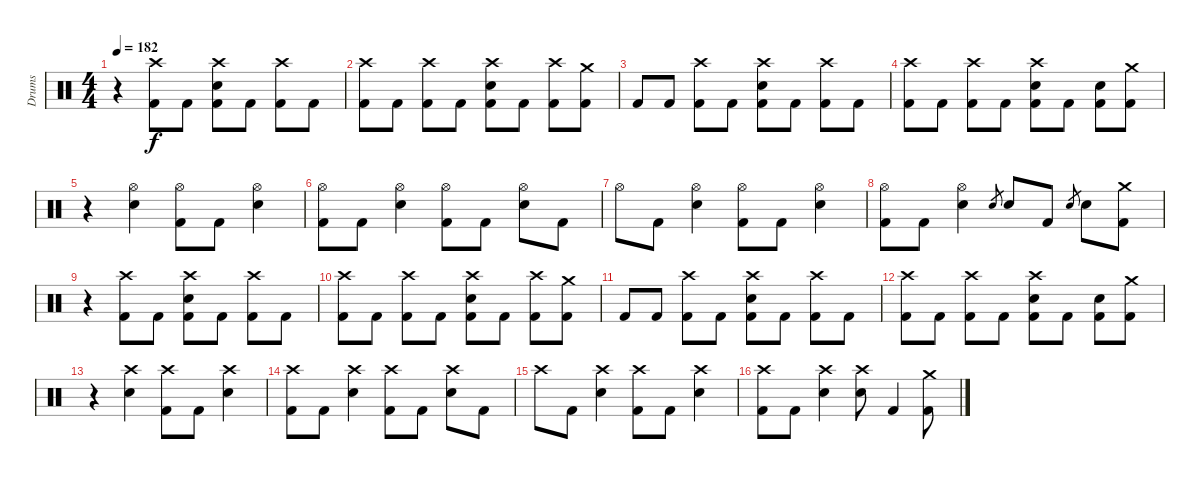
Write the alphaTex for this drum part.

\track ("Drums" "Drums") {instrument percussion}
\staff {score}
\articulation defaults
\ts (4 4)
\tempo 182
\clef neutral
\ks c
r.4{dy f volume 11} ("Crash high (hit)" "Kick (hit) 2").8 "Kick (hit) 2".8 ("Crash high (hit)" "Snare (hit) 2" "Kick (hit) 2").8 "Kick (hit) 2".8 ("Crash high (hit)" "Kick (hit) 2").8 "Kick (hit) 2".8 |
("Crash high (hit)" "Kick (hit) 2").8 "Kick (hit) 2".8 ("Crash high (hit)" "Kick (hit) 2").8 "Kick (hit) 2".8 ("Crash high (hit)" "Snare (hit) 2" "Kick (hit) 2").8 "Kick (hit) 2".8 ("Crash high (hit)" "Kick (hit) 2").8 ("Crash medium (hit)" "Kick (hit) 2").8 |
"Kick (hit) 2".8 "Kick (hit) 2".8 ("Crash high (hit)" "Kick (hit) 2").8 "Kick (hit) 2".8 ("Crash high (hit)" "Snare (hit) 2" "Kick (hit) 2").8 "Kick (hit) 2".8 ("Crash high (hit)" "Kick (hit) 2").8 "Kick (hit) 2".8 |
("Crash high (hit)" "Kick (hit) 2").8 "Kick (hit) 2".8 ("Crash high (hit)" "Kick (hit) 2").8 "Kick (hit) 2".8 ("Crash high (hit)" "Snare (hit) 2" "Kick (hit) 2").8 "Kick (hit) 2".8 ("Snare (hit) 2" "Kick (hit) 2").8 ("Crash medium (hit)" "Kick (hit) 2").8 |
r.4{volume 10} ("Hi-Hat (open)" "Snare (hit) 2").4 ("Hi-Hat (open)" "Kick (hit) 2").8 "Kick (hit) 2".8 ("Hi-Hat (open)" "Snare (hit) 2").4 |
("Hi-Hat (open)" "Kick (hit) 2").8 "Kick (hit) 2".8 ("Hi-Hat (open)" "Snare (hit) 2").4 ("Hi-Hat (open)" "Kick (hit) 2").8 "Kick (hit) 2".8 ("Hi-Hat (open)" "Snare (hit) 2").8 "Kick (hit) 2".8 |
"Hi-Hat (open)".8 "Kick (hit) 2".8 ("Hi-Hat (open)" "Snare (hit) 2").4 ("Hi-Hat (open)" "Kick (hit) 2").8 "Kick (hit) 2".8 ("Hi-Hat (open)" "Snare (hit) 2").4 |
("Hi-Hat (open)" "Kick (hit) 2").8 "Kick (hit) 2".8 ("Hi-Hat (open)" "Snare (hit) 2").4 "Snare (hit) 2".8{gr} "Snare (hit) 2".8 "Kick (hit) 2".8 "Snare (hit) 2".8{gr} "Snare (hit) 2".8 ("Crash medium (hit)" "Kick (hit) 2").8 |
r.4{volume 8} ("Crash high (hit)" "Kick (hit) 2").8 "Kick (hit) 2".8 ("Crash high (hit)" "Snare (hit) 2" "Kick (hit) 2").8 "Kick (hit) 2".8 ("Crash high (hit)" "Kick (hit) 2").8 "Kick (hit) 2".8 |
("Crash high (hit)" "Kick (hit) 2").8 "Kick (hit) 2".8 ("Crash high (hit)" "Kick (hit) 2").8 "Kick (hit) 2".8 ("Crash high (hit)" "Snare (hit) 2" "Kick (hit) 2").8 "Kick (hit) 2".8 ("Crash high (hit)" "Kick (hit) 2").8 ("Crash medium (hit)" "Kick (hit) 2").8 |
"Kick (hit) 2".8 "Kick (hit) 2".8 ("Crash high (hit)" "Kick (hit) 2").8 "Kick (hit) 2".8 ("Crash high (hit)" "Snare (hit) 2" "Kick (hit) 2").8 "Kick (hit) 2".8 ("Crash high (hit)" "Kick (hit) 2").8 "Kick (hit) 2".8 |
("Crash high (hit)" "Kick (hit) 2").8 "Kick (hit) 2".8 ("Crash high (hit)" "Kick (hit) 2").8 "Kick (hit) 2".8 ("Crash high (hit)" "Snare (hit) 2" "Kick (hit) 2").8 "Kick (hit) 2".8 ("Snare (hit) 2" "Kick (hit) 2").8 ("Crash medium (hit)" "Kick (hit) 2").8 |
r.4{volume 5} ("Crash high (hit)" "Snare (hit) 2").4 ("Crash high (hit)" "Kick (hit) 2").8 "Kick (hit) 2".8 ("Crash high (hit)" "Snare (hit) 2").4 |
("Crash high (hit)" "Kick (hit) 2").8 "Kick (hit) 2".8 ("Crash high (hit)" "Snare (hit) 2").4 ("Crash high (hit)" "Kick (hit) 2").8 "Kick (hit) 2".8 ("Crash high (hit)" "Snare (hit) 2").8 "Kick (hit) 2".8 |
"Crash high (hit)".8 "Kick (hit) 2".8 ("Crash high (hit)" "Snare (hit) 2").4 ("Crash high (hit)" "Kick (hit) 2").8 "Kick (hit) 2".8 ("Crash high (hit)" "Snare (hit) 2").4 |
("Crash high (hit)" "Kick (hit) 2").8 "Kick (hit) 2".8 ("Crash high (hit)" "Snare (hit) 2").4 ("Crash high (hit)" "Snare (hit) 2").8 "Kick (hit) 2".4 ("Crash medium (hit)" "Kick (hit) 2").8
